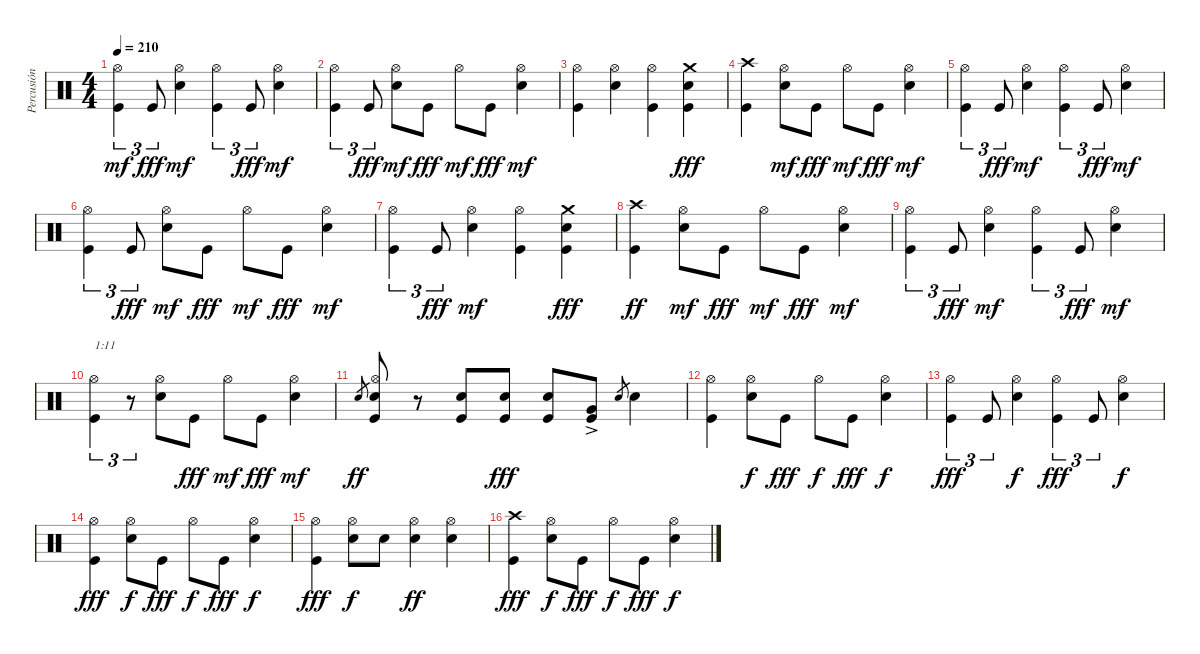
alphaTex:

\track ("Percusión" "Percusión") {instrument percussion}
\staff {score}
\articulation defaults
\ts (4 4)
\tempo 210
\clef neutral
\ks c
("Kick (hit)" "Hi-Hat (open)").4{tu (3 2) dy mf} "Kick (hit)".8{tu (3 2) dy fff} ("Electric Snare (hit)" "Hi-Hat (open)").4{dy mf} ("Kick (hit)" "Hi-Hat (open)").4{tu (3 2)} "Kick (hit)".8{tu (3 2) dy fff} ("Electric Snare (hit)" "Hi-Hat (open)").4{dy mf} |
("Kick (hit)" "Hi-Hat (open)").4{tu (3 2)} "Kick (hit)".8{tu (3 2) dy fff} ("Electric Snare (hit)" "Hi-Hat (open)").8{dy mf} "Kick (hit)".8{dy fff} "Hi-Hat (open)".8{dy mf} "Kick (hit)".8{dy fff} ("Electric Snare (hit)" "Hi-Hat (open)").4{dy mf} |
("Kick (hit)" "Hi-Hat (open)").4 ("Electric Snare (hit)" "Hi-Hat (open)").4 ("Kick (hit)" "Hi-Hat (open)").4 ("Kick (hit)" "Electric Snare (hit)" "Crash medium (hit)").4{dy fff} |
("Kick (hit)" "Crash high (hit)").4 ("Electric Snare (hit)" "Hi-Hat (open)").8{dy mf} "Kick (hit)".8{dy fff} "Hi-Hat (open)".8{dy mf} "Kick (hit)".8{dy fff} ("Electric Snare (hit)" "Hi-Hat (open)").4{dy mf} |
("Kick (hit)" "Hi-Hat (open)").4{tu (3 2)} "Kick (hit)".8{tu (3 2) dy fff} ("Electric Snare (hit)" "Hi-Hat (open)").4{dy mf} ("Kick (hit)" "Hi-Hat (open)").4{tu (3 2)} "Kick (hit)".8{tu (3 2) dy fff} ("Electric Snare (hit)" "Hi-Hat (open)").4{dy mf} |
("Kick (hit)" "Hi-Hat (open)").4{tu (3 2)} "Kick (hit)".8{tu (3 2) dy fff} ("Electric Snare (hit)" "Hi-Hat (open)").8{dy mf} "Kick (hit)".8{dy fff} "Hi-Hat (open)".8{dy mf} "Kick (hit)".8{dy fff} ("Electric Snare (hit)" "Hi-Hat (open)").4{dy mf} |
("Kick (hit)" "Hi-Hat (open)").4{tu (3 2)} "Kick (hit)".8{tu (3 2) dy fff} ("Electric Snare (hit)" "Hi-Hat (open)").4{dy mf} ("Kick (hit)" "Hi-Hat (open)").4 ("Kick (hit)" "Electric Snare (hit)" "Crash medium (hit)").4{dy fff} |
("Kick (hit)" "Crash high (hit)").4{dy ff} ("Electric Snare (hit)" "Hi-Hat (open)").8{dy mf} "Kick (hit)".8{dy fff} "Hi-Hat (open)".8{dy mf} "Kick (hit)".8{dy fff} ("Electric Snare (hit)" "Hi-Hat (open)").4{dy mf} |
("Kick (hit)" "Hi-Hat (open)").4{tu (3 2)} "Kick (hit)".8{tu (3 2) dy fff} ("Electric Snare (hit)" "Hi-Hat (open)").4{dy mf} ("Kick (hit)" "Hi-Hat (open)").4{tu (3 2)} "Kick (hit)".8{tu (3 2) dy fff} ("Electric Snare (hit)" "Hi-Hat (open)").4{dy mf} |
("Kick (hit)" "Hi-Hat (open)").4{tu (3 2) txt "1:11"} r.8{tu (3 2)} ("Electric Snare (hit)" "Hi-Hat (open)").8 "Kick (hit)".8{dy fff} "Hi-Hat (open)".8{dy mf} "Kick (hit)".8{dy fff} ("Electric Snare (hit)" "Hi-Hat (open)").4{dy mf} |
"Electric Snare (hit)".8{gr dy ff} ("Kick (hit)" "Electric Snare (hit)" "Hi-Hat (open)").8 r.8 ("Kick (hit)" "Electric Snare (hit)").8 ("Kick (hit)" "Electric Snare (hit)").8{dy fff} ("Kick (hit)" "Electric Snare (hit)").8 ("Kick (hit)" "Very Low Tom (hit)"{ac}).8 "Electric Snare (hit)".8{gr} "Electric Snare (hit)".4 |
("Kick (hit)" "Hi-Hat (open)").4 ("Electric Snare (hit)" "Hi-Hat (open)").8{dy f} "Kick (hit)".8{dy fff} "Hi-Hat (open)".8{dy f} "Kick (hit)".8{dy fff} ("Electric Snare (hit)" "Hi-Hat (open)").4{dy f} |
("Kick (hit)" "Hi-Hat (open)").4{tu (3 2) dy fff} "Kick (hit)".8{tu (3 2)} ("Electric Snare (hit)" "Hi-Hat (open)").4{dy f} ("Kick (hit)" "Hi-Hat (open)").4{tu (3 2) dy fff} "Kick (hit)".8{tu (3 2)} ("Electric Snare (hit)" "Hi-Hat (open)").4{dy f} |
("Kick (hit)" "Hi-Hat (open)").4{dy fff} ("Electric Snare (hit)" "Hi-Hat (open)").8{dy f} "Kick (hit)".8{dy fff} "Hi-Hat (open)".8{dy f} "Kick (hit)".8{dy fff} ("Electric Snare (hit)" "Hi-Hat (open)").4{dy f} |
("Kick (hit)" "Hi-Hat (open)").4{dy fff} ("Electric Snare (hit)" "Hi-Hat (open)").8{dy f} "Electric Snare (hit)".8 ("Electric Snare (hit)" "Hi-Hat (open)").4{dy ff} ("Electric Snare (hit)" "Hi-Hat (open)").4 |
("Kick (hit)" "Crash high (hit)").4{dy fff} ("Electric Snare (hit)" "Hi-Hat (open)").8{dy f} "Kick (hit)".8{dy fff} "Hi-Hat (open)".8{dy f} "Kick (hit)".8{dy fff} ("Electric Snare (hit)" "Hi-Hat (open)").4{dy f}
